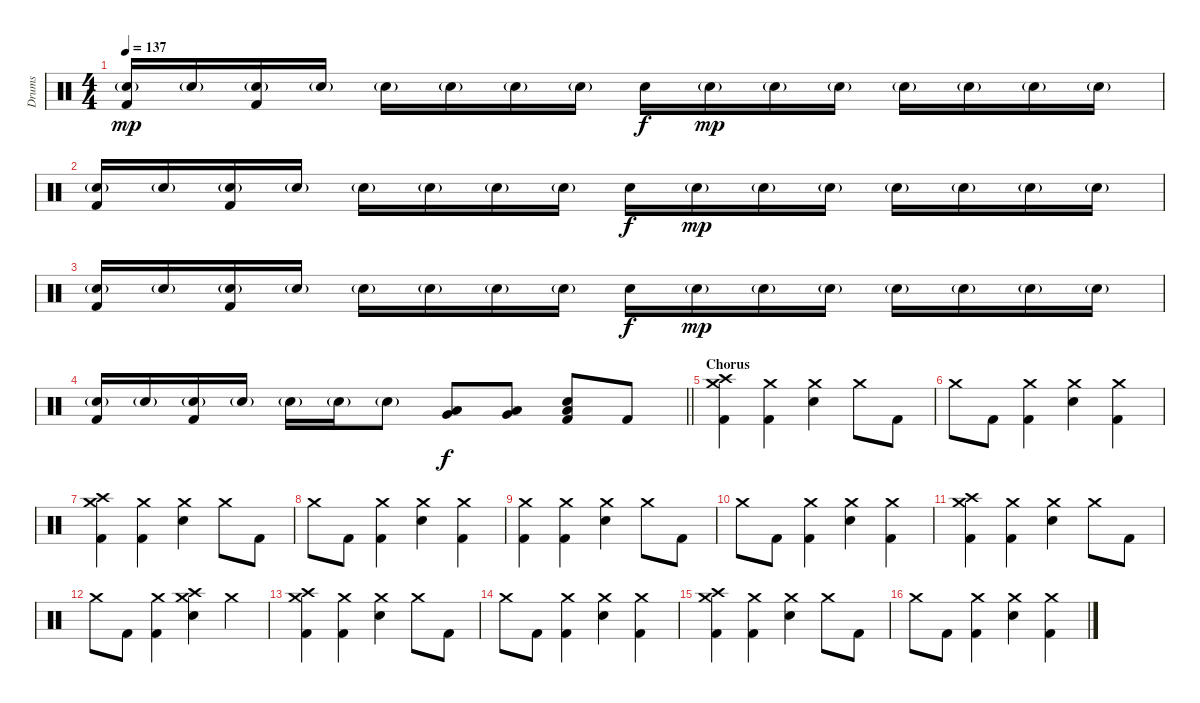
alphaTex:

\track ("Drums" "Drums") {instrument percussion}
\staff {score}
\articulation defaults
\ts (4 4)
\tempo 137
\clef neutral
\ks c
("Electric Snare (hit)"{g} "Kick (hit) 2").16{dy mp} "Electric Snare (hit)"{g}.16 ("Electric Snare (hit)"{g} "Kick (hit) 2").16 "Electric Snare (hit)"{g}.16 "Electric Snare (hit)"{g}.16 "Electric Snare (hit)"{g}.16 "Electric Snare (hit)"{g}.16 "Electric Snare (hit)"{g}.16 "Electric Snare (hit)".16{dy f} "Electric Snare (hit)"{g}.16{dy mp} "Electric Snare (hit)"{g}.16 "Electric Snare (hit)"{g}.16 "Electric Snare (hit)"{g}.16 "Electric Snare (hit)"{g}.16 "Electric Snare (hit)"{g}.16 "Electric Snare (hit)"{g}.16 |
("Electric Snare (hit)"{g} "Kick (hit) 2").16 "Electric Snare (hit)"{g}.16 ("Electric Snare (hit)"{g} "Kick (hit) 2").16 "Electric Snare (hit)"{g}.16 "Electric Snare (hit)"{g}.16 "Electric Snare (hit)"{g}.16 "Electric Snare (hit)"{g}.16 "Electric Snare (hit)"{g}.16 "Electric Snare (hit)".16{dy f} "Electric Snare (hit)"{g}.16{dy mp} "Electric Snare (hit)"{g}.16 "Electric Snare (hit)"{g}.16 "Electric Snare (hit)"{g}.16 "Electric Snare (hit)"{g}.16 "Electric Snare (hit)"{g}.16 "Electric Snare (hit)"{g}.16 |
("Electric Snare (hit)"{g} "Kick (hit) 2").16 "Electric Snare (hit)"{g}.16 ("Electric Snare (hit)"{g} "Kick (hit) 2").16 "Electric Snare (hit)"{g}.16 "Electric Snare (hit)"{g}.16 "Electric Snare (hit)"{g}.16 "Electric Snare (hit)"{g}.16 "Electric Snare (hit)"{g}.16 "Electric Snare (hit)".16{dy f} "Electric Snare (hit)"{g}.16{dy mp} "Electric Snare (hit)"{g}.16 "Electric Snare (hit)"{g}.16 "Electric Snare (hit)"{g}.16 "Electric Snare (hit)"{g}.16 "Electric Snare (hit)"{g}.16 "Electric Snare (hit)"{g}.16 |
\barLineRight lightlight
("Electric Snare (hit)"{g} "Kick (hit) 2").16 "Electric Snare (hit)"{g}.16 ("Electric Snare (hit)"{g} "Kick (hit) 2").16 "Electric Snare (hit)"{g}.16 "Electric Snare (hit)"{g}.16 "Electric Snare (hit)"{g}.16 "Electric Snare (hit)"{g}.8 ("Low Tom (hit)" "Very Low Tom (hit)").8{dy f} ("Low Tom (hit)" "Very Low Tom (hit)").8 ("Electric Snare (hit)" "Low Floor Tom (hit)" "Kick (hit) 2").8 "Kick (hit) 2".8 |
\section ("" "Chorus")
("Crash high (hit)" "Crash medium (hit)" "Kick (hit) 2").4 ("Crash medium (hit)" "Kick (hit) 2").4 ("Crash medium (hit)" "Electric Snare (hit)").4 "Crash medium (hit)".8 "Kick (hit) 2".8 |
"Crash medium (hit)".8 "Kick (hit) 2".8 ("Crash medium (hit)" "Kick (hit) 2").4 ("Crash medium (hit)" "Electric Snare (hit)").4 ("Crash medium (hit)" "Kick (hit) 2").4 |
("Crash high (hit)" "Crash medium (hit)" "Kick (hit) 2").4 ("Crash medium (hit)" "Kick (hit) 2").4 ("Crash medium (hit)" "Electric Snare (hit)").4 "Crash medium (hit)".8 "Kick (hit) 2".8 |
"Crash medium (hit)".8 "Kick (hit) 2".8 ("Crash medium (hit)" "Kick (hit) 2").4 ("Crash medium (hit)" "Electric Snare (hit)").4 ("Crash medium (hit)" "Kick (hit) 2").4 |
("Crash medium (hit)" "Kick (hit) 2").4 ("Crash medium (hit)" "Kick (hit) 2").4 ("Crash medium (hit)" "Electric Snare (hit)").4 "Crash medium (hit)".8 "Kick (hit) 2".8 |
"Crash medium (hit)".8 "Kick (hit) 2".8 ("Crash medium (hit)" "Kick (hit) 2").4 ("Crash medium (hit)" "Electric Snare (hit)").4 ("Crash medium (hit)" "Kick (hit) 2").4 |
("Crash high (hit)" "Crash medium (hit)" "Kick (hit) 2").4 ("Crash medium (hit)" "Kick (hit) 2").4 ("Crash medium (hit)" "Electric Snare (hit)").4 "Crash medium (hit)".8 "Kick (hit) 2".8 |
"Crash medium (hit)".8 "Kick (hit) 2".8 ("Crash medium (hit)" "Kick (hit) 2").4 ("Crash high (hit)" "Crash medium (hit)" "Electric Snare (hit)").4 "Crash medium (hit)".4 |
("Crash high (hit)" "Crash medium (hit)" "Kick (hit) 2").4 ("Crash medium (hit)" "Kick (hit) 2").4 ("Crash medium (hit)" "Electric Snare (hit)").4 "Crash medium (hit)".8 "Kick (hit) 2".8 |
"Crash medium (hit)".8 "Kick (hit) 2".8 ("Crash medium (hit)" "Kick (hit) 2").4 ("Crash medium (hit)" "Electric Snare (hit)").4 ("Crash medium (hit)" "Kick (hit) 2").4 |
("Crash high (hit)" "Crash medium (hit)" "Kick (hit) 2").4 ("Crash medium (hit)" "Kick (hit) 2").4 ("Crash medium (hit)" "Electric Snare (hit)").4 "Crash medium (hit)".8 "Kick (hit) 2".8 |
"Crash medium (hit)".8 "Kick (hit) 2".8 ("Crash medium (hit)" "Kick (hit) 2").4 ("Crash medium (hit)" "Electric Snare (hit)").4 ("Crash medium (hit)" "Kick (hit) 2").4
